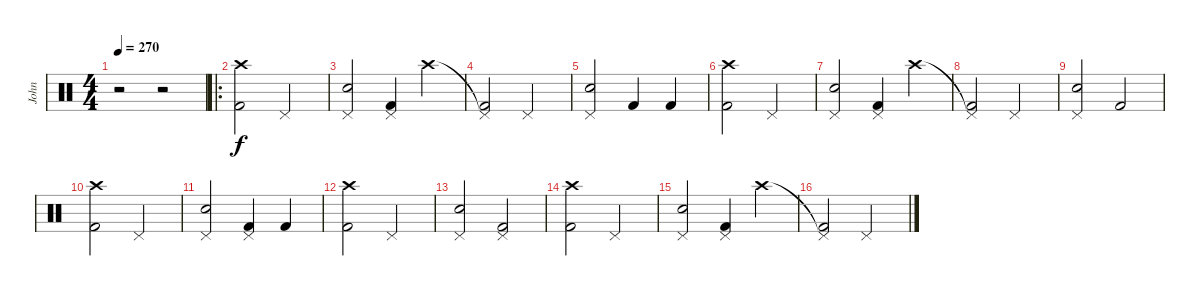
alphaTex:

\track ("John" "John") {instrument percussion}
\staff {score}
\articulation defaults
\ts (4 4)
\tempo 270
\clef neutral
\ks c
r.2{dy f} r.2 |
\ro
("Crash high (hit)" "Kick (hit) 2").2 "Pedal Hi-Hat (hit)".2 |
("Pedal Hi-Hat (hit)" "Electric Snare (hit)").2 ("Pedal Hi-Hat (hit)" "Kick (hit) 2").4 "Crash high (hit)".4 |
("Pedal Hi-Hat (hit)"{t} "Kick (hit) 2").2 "Pedal Hi-Hat (hit)".2 |
("Pedal Hi-Hat (hit)" "Electric Snare (hit)").2 "Kick (hit) 2".4 "Kick (hit) 2".4 |
("Crash high (hit)" "Kick (hit) 2").2 "Pedal Hi-Hat (hit)".2 |
("Pedal Hi-Hat (hit)" "Electric Snare (hit)").2 ("Pedal Hi-Hat (hit)" "Kick (hit) 2").4 "Crash high (hit)".4 |
("Pedal Hi-Hat (hit)"{t} "Kick (hit) 2").2 "Pedal Hi-Hat (hit)".2 |
("Pedal Hi-Hat (hit)" "Electric Snare (hit)").2 "Kick (hit) 2".2 |
("Crash high (hit)" "Kick (hit) 2").2 "Pedal Hi-Hat (hit)".2 |
("Pedal Hi-Hat (hit)" "Electric Snare (hit)").2 ("Pedal Hi-Hat (hit)" "Kick (hit) 2").4 "Kick (hit) 2".4 |
("Crash high (hit)" "Kick (hit) 2").2 "Pedal Hi-Hat (hit)".2 |
("Pedal Hi-Hat (hit)" "Electric Snare (hit)").2 ("Pedal Hi-Hat (hit)" "Kick (hit) 2").2 |
("Crash high (hit)" "Kick (hit) 2").2 "Pedal Hi-Hat (hit)".2 |
("Pedal Hi-Hat (hit)" "Electric Snare (hit)").2 ("Pedal Hi-Hat (hit)" "Kick (hit) 2").4 "Crash high (hit)".4 |
("Pedal Hi-Hat (hit)"{t} "Kick (hit) 2").2 "Pedal Hi-Hat (hit)".2
